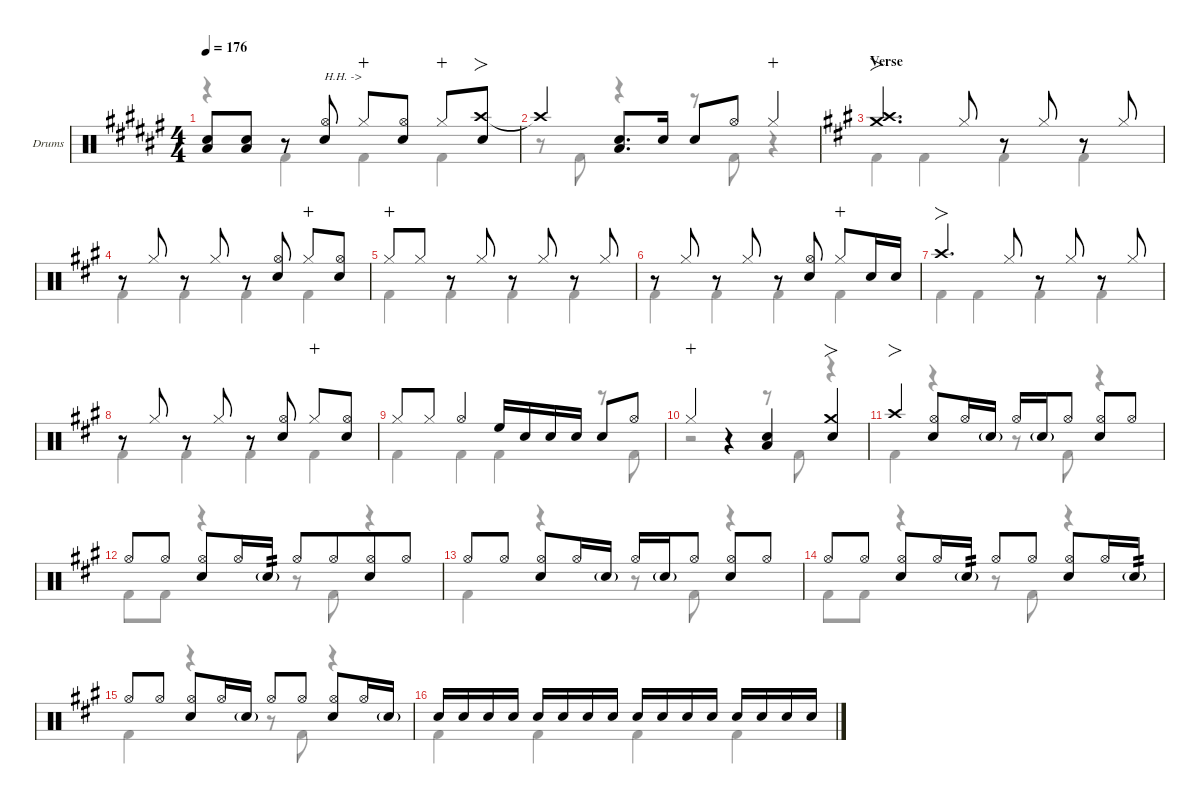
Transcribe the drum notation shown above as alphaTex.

\defaultSystemsLayout 4
\hideDynamics
\bracketExtendMode nobrackets
\firstSystemTrackNameOrientation horizontal
\track ("Drums" "Drums") {defaultSystemsLayout 4 instrument percussion}
\staff {score}
\articulation defaults
\voice
\ts (4 4)
\tempo 176
\clef neutral
\ks f#
("Snare (hit) 2"{acc forcenatural} "Low Tom (hit)"{acc forcenatural}).8{dy f beam Up} ("Snare (hit) 2"{acc forcenatural} "Low Tom (hit)"{acc forcenatural}).8{beam Up} r.8{beam Up} ("Snare (hit) 2"{acc forcenatural} "Hi-Hat (open)"{acc forcenatural}).8{txt "H.H. ->" beam Up} "Hi-Hat (closed)"{acc forcenatural}.8{dy mp wahc beam Up} ("Hi-Hat (open)"{acc forcenatural} "Snare (hit) 2"{acc forcenatural}).8{dy f beam Up} "Hi-Hat (closed)"{acc forcenatural}.8{dy mp wahc beam Up} ("Crash high (hit)"{acc forcenatural} "Snare (hit) 2"{acc forcenatural}).8{fo dy f beam Up} |
"Crash high (hit)"{t acc forcenatural}.4{beam Up} ("Snare (hit) 2"{acc forcenatural} "Low Tom (hit)"{acc forcenatural}).8{d beam Up} "Snare (hit) 2"{acc forcenatural}.16{dy mf beam Up} "Snare (hit) 2"{acc forcenatural}.8{dy f beam Up} "Hi-Hat (open)"{acc forcenatural}.8{beam Up} "Hi-Hat (closed)"{acc forcenatural}.4{dy mp wahc beam Up} |
\section ("" "Verse")
\ks a
("Crash high (hit)"{acc forcenatural} "Crash medium (hit)"{acc forcenatural}).4{fo d dy f beam Up} "Hi-Hat (closed)"{acc forcenatural}.8{beam Up} r.8{beam Up} "Hi-Hat (closed)"{acc forcenatural}.8{beam Up} r.8{beam Up} "Hi-Hat (closed)"{acc forcenatural}.8{beam Up} |
r.8{beam Up} "Hi-Hat (closed)"{acc forcenatural}.8{beam Up} r.8{beam Up} "Hi-Hat (closed)"{acc forcenatural}.8{beam Up} r.8{beam Up} ("Hi-Hat (open)"{acc forcenatural} "Snare (hit) 2"{acc forcenatural}).8{beam Up} "Hi-Hat (closed)"{acc forcenatural}.8{dy mp wahc beam Up} ("Hi-Hat (open)"{acc forcenatural} "Snare (hit) 2"{acc forcenatural}).8{dy f beam Up} |
"Hi-Hat (closed)"{acc forcenatural}.8{dy mp wahc beam Up} "Hi-Hat (closed)"{acc forcenatural}.8{dy f beam Up} r.8{beam Up} "Hi-Hat (closed)"{acc forcenatural}.8{beam Up} r.8{beam Up} "Hi-Hat (closed)"{acc forcenatural}.8{beam Up} r.8{beam Up} "Hi-Hat (closed)"{acc forcenatural}.8{beam Up} |
r.8{beam Up} "Hi-Hat (closed)"{acc forcenatural}.8{beam Up} r.8{beam Up} "Hi-Hat (closed)"{acc forcenatural}.8{beam Up} r.8{beam Up} ("Hi-Hat (open)"{acc forcenatural} "Snare (hit) 2"{acc forcenatural}).8{beam Up beam split} "Hi-Hat (closed)"{acc forcenatural}.8{dy mp wahc beam Up} "Snare (hit) 2"{acc forcenatural}.16{dy f beam Up} "Snare (hit) 2"{acc forcenatural}.16{dy mf beam Up} |
"Crash high (hit)"{acc forcenatural}.4{fo d dy f beam Up} "Hi-Hat (closed)"{acc forcenatural}.8{beam Up} r.8{beam Up} "Hi-Hat (closed)"{acc forcenatural}.8{beam Up} r.8{beam Up} "Hi-Hat (closed)"{acc forcenatural}.8{beam Up} |
r.8{beam Up} "Hi-Hat (closed)"{acc forcenatural}.8{beam Up} r.8{beam Up} "Hi-Hat (closed)"{acc forcenatural}.8{beam Up} r.8{beam Up} ("Hi-Hat (open)"{acc forcenatural} "Snare (hit) 2"{acc forcenatural}).8{beam Up} "Hi-Hat (closed)"{acc forcenatural}.8{dy mp wahc beam Up} ("Hi-Hat (open)"{acc forcenatural} "Snare (hit) 2"{acc forcenatural}).8{dy f beam Up} |
"Hi-Hat (closed)"{acc forcenatural}.8{beam Up} "Hi-Hat (closed)"{acc forcenatural}.8{dy mf beam Up} "Hi-Hat (open)"{acc forcenatural}.4{dy f beam Up} "High Floor Tom (hit)"{acc forcenatural}.16{beam Up} "Snare (hit) 2"{acc forcenatural}.16{dy mf beam Up} "Snare (hit) 2"{acc forcenatural}.16{dy f beam Up} "Snare (hit) 2"{acc forcenatural}.16{dy mf beam Up beam split} "Snare (hit) 2"{acc forcenatural}.8{dy f beam Up} "Hi-Hat (open)"{acc forcenatural}.8{beam Up} |
"Hi-Hat (closed)"{acc forcenatural}.4{dy mp wahc beam Up} r.4{beam Up} ("Snare (hit) 2"{acc forcenatural} "Low Tom (hit)"{acc forcenatural}).4{dy f beam Up} ("Snare (hit) 2"{acc forcenatural} "Crash medium (hit)"{acc forcenatural}).4{fo beam Up} |
"Crash high (hit)"{acc forcenatural}.4{fo beam Up} ("Hi-Hat (open)"{acc forcenatural} "Snare (hit) 2"{acc forcenatural}).8{beam Up} "Hi-Hat (open)"{acc forcenatural}.16{dy mf beam Up} "Snare (hit) 2"{g acc forcenatural}.16{beam Up} "Hi-Hat (open)"{acc forcenatural}.16{dy f beam Up} "Snare (hit) 2"{g acc forcenatural}.16{dy mf beam Up} "Hi-Hat (open)"{acc forcenatural}.8{beam Up beam split} ("Hi-Hat (open)"{acc forcenatural} "Snare (hit) 2"{acc forcenatural}).8{dy f beam Up} "Hi-Hat (open)"{acc forcenatural}.8{dy mf beam Up beam split} |
"Hi-Hat (open)"{acc forcenatural}.8{dy f beam Up} "Hi-Hat (open)"{acc forcenatural}.8{dy mf beam Up beam split} ("Hi-Hat (open)"{acc forcenatural} "Snare (hit) 2"{acc forcenatural}).8{dy f beam Up} "Hi-Hat (open)"{acc forcenatural}.16{dy mf beam Up} "Snare (hit) 2"{g acc forcenatural}.16{tp 2 beam Up} "Hi-Hat (open)"{acc forcenatural}.8{dy f beam Up beam merge} "Hi-Hat (open)"{acc forcenatural}.8{dy mf beam Up beam merge} ("Hi-Hat (open)"{acc forcenatural} "Snare (hit) 2"{acc forcenatural}).8{dy f beam Up beam merge} "Hi-Hat (open)"{acc forcenatural}.8{dy mf beam Up beam split} |
"Hi-Hat (open)"{acc forcenatural}.8{dy f beam Up} "Hi-Hat (open)"{acc forcenatural}.8{dy mf beam Up beam split} ("Hi-Hat (open)"{acc forcenatural} "Snare (hit) 2"{acc forcenatural}).8{dy f beam Up} "Hi-Hat (open)"{acc forcenatural}.16{dy mf beam Up} "Snare (hit) 2"{g acc forcenatural}.16{beam Up} "Hi-Hat (open)"{acc forcenatural}.16{dy f beam Up} "Snare (hit) 2"{g acc forcenatural}.16{dy mf beam Up} "Hi-Hat (open)"{acc forcenatural}.8{beam Up beam split} ("Hi-Hat (open)"{acc forcenatural} "Snare (hit) 2"{acc forcenatural}).8{dy f beam Up} "Hi-Hat (open)"{acc forcenatural}.8{dy mf beam Up beam split} |
"Hi-Hat (open)"{acc forcenatural}.8{dy f beam Up} "Hi-Hat (open)"{acc forcenatural}.8{dy mf beam Up beam split} ("Hi-Hat (open)"{acc forcenatural} "Snare (hit) 2"{acc forcenatural}).8{dy f beam Up} "Hi-Hat (open)"{acc forcenatural}.16{dy mf beam Up} "Snare (hit) 2"{g acc forcenatural}.16{tp 2 beam Up} "Hi-Hat (open)"{acc forcenatural}.8{dy f beam Up} "Hi-Hat (open)"{acc forcenatural}.8{dy mf beam Up beam split} ("Hi-Hat (open)"{acc forcenatural} "Snare (hit) 2"{acc forcenatural}).8{dy f beam Up} "Hi-Hat (open)"{acc forcenatural}.16{dy mf beam Up} "Snare (hit) 2"{g acc forcenatural}.16{tp 2 beam Up} |
"Hi-Hat (open)"{acc forcenatural}.8{dy f beam Up} "Hi-Hat (open)"{acc forcenatural}.8{dy mf beam Up beam split} ("Hi-Hat (open)"{acc forcenatural} "Snare (hit) 2"{acc forcenatural}).8{dy f beam Up} "Hi-Hat (open)"{acc forcenatural}.16{dy mf beam Up} "Snare (hit) 2"{g acc forcenatural}.16{beam Up} "Hi-Hat (open)"{acc forcenatural}.8{dy f beam Up beam merge} "Hi-Hat (open)"{acc forcenatural}.8{dy mf beam Up beam split} ("Hi-Hat (open)"{acc forcenatural} "Snare (hit) 2"{acc forcenatural}).8{dy f beam Up} "Hi-Hat (open)"{acc forcenatural}.16{dy mf beam Up} "Snare (hit) 2"{g acc forcenatural}.16{beam Up} |
"Snare (hit) 2"{acc forcenatural}.16{dy f beam Up} "Snare (hit) 2"{acc forcenatural}.16{dy mp beam Up} "Snare (hit) 2"{acc forcenatural}.16{dy mf beam Up} "Snare (hit) 2"{acc forcenatural}.16{dy mp beam Up beam split} "Snare (hit) 2"{acc forcenatural}.16{dy f beam Up} "Snare (hit) 2"{acc forcenatural}.16{dy mp beam Up} "Snare (hit) 2"{acc forcenatural}.16{dy mf beam Up} "Snare (hit) 2"{acc forcenatural}.16{dy mp beam Up} "Snare (hit) 2"{acc forcenatural}.16{dy f beam Up} "Snare (hit) 2"{acc forcenatural}.16{dy mp beam Up} "Snare (hit) 2"{acc forcenatural}.16{dy mf beam Up} "Snare (hit) 2"{acc forcenatural}.16{dy mp beam Up beam split} "Snare (hit) 2"{acc forcenatural}.16{dy f beam Up} "Snare (hit) 2"{acc forcenatural}.16{dy mp beam Up} "Snare (hit) 2"{acc forcenatural}.16{dy mf beam Up} "Snare (hit) 2"{acc forcenatural}.16{dy mp beam Up}
\voice
\clef neutral
\ottava regular
\simile none
\ks f#
r.4{dy f beam Down} "Kick (hit) 2"{acc forcenatural}.4{beam Down} "Kick (hit) 2"{acc forcenatural}.4{beam Down} "Kick (hit) 2"{acc forcenatural}.4{beam Down} |
r.8{beam Down} "Kick (hit) 2"{acc forcenatural}.8{beam Down} r.4{beam Down} r.8{beam Down} "Kick (hit) 2"{acc forcenatural}.8{beam Down} r.4{beam Down} |
\ks a "Kick (hit) 2"{acc forcenatural}.4{beam Down} "Kick (hit) 2"{acc forcenatural}.4{beam Down} "Kick (hit) 2"{acc forcenatural}.4{beam Down} "Kick (hit) 2"{acc forcenatural}.4{beam Down}
|
"Kick (hit) 2"{acc forcenatural}.4{beam Down} "Kick (hit) 2"{acc forcenatural}.4{beam Down} "Kick (hit) 2"{acc forcenatural}.4{beam Down} "Kick (hit) 2"{acc forcenatural}.4{beam Down} |
"Kick (hit) 2"{acc forcenatural}.4{beam Down} "Kick (hit) 2"{acc forcenatural}.4{beam Down} "Kick (hit) 2"{acc forcenatural}.4{beam Down} "Kick (hit) 2"{acc forcenatural}.4{beam Down} |
"Kick (hit) 2"{acc forcenatural}.4{beam Down} "Kick (hit) 2"{acc forcenatural}.4{beam Down} "Kick (hit) 2"{acc forcenatural}.4{beam Down} "Kick (hit) 2"{acc forcenatural}.4{beam Down} |
"Kick (hit) 2"{acc forcenatural}.4{beam Down} "Kick (hit) 2"{acc forcenatural}.4{beam Down} "Kick (hit) 2"{acc forcenatural}.4{beam Down} "Kick (hit) 2"{acc forcenatural}.4{beam Down} |
"Kick (hit) 2"{acc forcenatural}.4{beam Down} "Kick (hit) 2"{acc forcenatural}.4{beam Down} "Kick (hit) 2"{acc forcenatural}.4{beam Down} "Kick (hit) 2"{acc forcenatural}.4{beam Down} |
"Kick (hit) 2"{acc forcenatural}.4{beam Down} "Kick (hit) 2"{acc forcenatural}.4{beam Down} "Kick (hit) 2"{acc forcenatural}.4{beam Down} r.8{beam Down} "Kick (hit) 2"{acc forcenatural}.8{beam Down} |
r.2{beam Down} r.8{beam Down} "Kick (hit) 2"{acc forcenatural}.8{beam Down} r.4{beam Down} |
"Kick (hit) 2"{acc forcenatural}.4{beam Down} r.4{beam Down} r.8{beam Down} "Kick (hit) 2"{acc forcenatural}.8{beam Down} r.4{beam Down} |
"Kick (hit) 2"{acc forcenatural}.8{beam Down} "Kick (hit) 2"{acc forcenatural}.8{beam Down} r.4{beam Down} r.8{beam Down} "Kick (hit) 2"{acc forcenatural}.8{beam Down} r.4{beam Down} |
"Kick (hit) 2"{acc forcenatural}.4{beam Down} r.4{beam Down} r.8{beam Down} "Kick (hit) 2"{acc forcenatural}.8{beam Down} r.4{beam Down} |
"Kick (hit) 2"{acc forcenatural}.8{beam Down} "Kick (hit) 2"{acc forcenatural}.8{beam Down} r.4{beam Down} r.8{beam Down} "Kick (hit) 2"{acc forcenatural}.8{beam Down} r.4{beam Down} |
"Kick (hit) 2"{acc forcenatural}.4{beam Down} r.4{beam Down} r.8{beam Down} "Kick (hit) 2"{acc forcenatural}.8{beam Down} r.4{beam Down} |
"Kick (hit) 2"{acc forcenatural}.4{beam Down} "Kick (hit) 2"{acc forcenatural}.4{beam Down} "Kick (hit) 2"{acc forcenatural}.4{beam Down} "Kick (hit) 2"{acc forcenatural}.4{beam Down}
